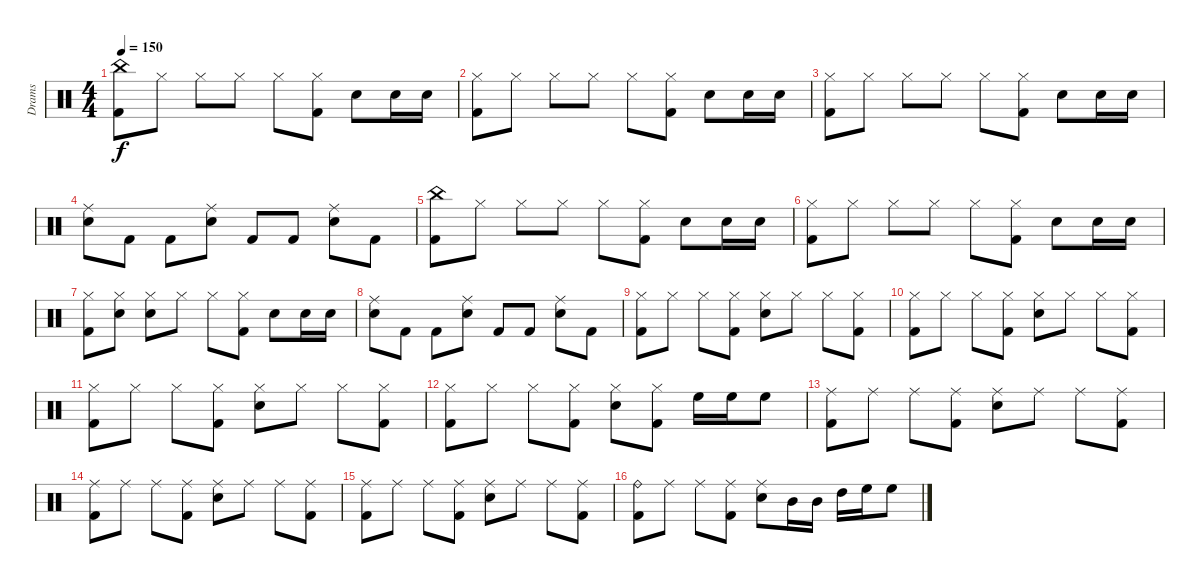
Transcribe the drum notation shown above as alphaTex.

\track ("Drams" "Drams") {instrument percussion}
\staff {score}
\articulation defaults
\ts (4 4)
\tempo 150
\clef neutral
\ks aminor
("China (hit)" "Kick (hit) 2").8{dy f} "Hi-Hat (closed)".8 "Hi-Hat (closed)".8 "Hi-Hat (closed)".8 "Hi-Hat (closed)".8 ("Hi-Hat (closed)" "Kick (hit) 2").8 "Electric Snare (hit)".8 "Electric Snare (hit)".16 "Electric Snare (hit)".16 |
("Hi-Hat (closed)" "Kick (hit) 2").8 "Hi-Hat (closed)".8 "Hi-Hat (closed)".8 "Hi-Hat (closed)".8 "Hi-Hat (closed)".8 ("Hi-Hat (closed)" "Kick (hit) 2").8 "Electric Snare (hit)".8 "Electric Snare (hit)".16 "Electric Snare (hit)".16 |
("Hi-Hat (closed)" "Kick (hit) 2").8 "Hi-Hat (closed)".8 "Hi-Hat (closed)".8 "Hi-Hat (closed)".8 "Hi-Hat (closed)".8 ("Hi-Hat (closed)" "Kick (hit) 2").8 "Electric Snare (hit)".8 "Electric Snare (hit)".16 "Electric Snare (hit)".16 |
("Ride (middle)" "Electric Snare (hit)").8 "Kick (hit) 2".8 "Kick (hit) 2".8 ("Electric Snare (hit)" "Ride (middle)").8 "Kick (hit) 2".8 "Kick (hit) 2".8 ("Electric Snare (hit)" "Ride (middle)").8 "Kick (hit) 2".8 |
("China (hit)" "Kick (hit) 2").8 "Hi-Hat (closed)".8 "Hi-Hat (closed)".8 "Hi-Hat (closed)".8 "Hi-Hat (closed)".8 ("Hi-Hat (closed)" "Kick (hit) 2").8 "Electric Snare (hit)".8 "Electric Snare (hit)".16 "Electric Snare (hit)".16 |
("Hi-Hat (closed)" "Kick (hit) 2").8 "Hi-Hat (closed)".8 "Hi-Hat (closed)".8 "Hi-Hat (closed)".8 "Hi-Hat (closed)".8 ("Hi-Hat (closed)" "Kick (hit) 2").8 "Electric Snare (hit)".8 "Electric Snare (hit)".16 "Electric Snare (hit)".16 |
("Hi-Hat (closed)" "Kick (hit) 2").8 ("Hi-Hat (closed)" "Electric Snare (hit)").8 ("Hi-Hat (closed)" "Electric Snare (hit)").8 "Hi-Hat (closed)".8 "Hi-Hat (closed)".8 ("Hi-Hat (closed)" "Kick (hit) 2").8 "Electric Snare (hit)".8 "Electric Snare (hit)".16 "Electric Snare (hit)".16 |
("Ride (middle)" "Electric Snare (hit)").8 "Kick (hit) 2".8 "Kick (hit) 2".8 ("Electric Snare (hit)" "Ride (middle)").8 "Kick (hit) 2".8 "Kick (hit) 2".8 ("Electric Snare (hit)" "Ride (middle)").8 "Kick (hit) 2".8 |
("Hi-Hat (closed)" "Kick (hit) 2").8 "Hi-Hat (closed)".8 "Hi-Hat (closed)".8 ("Hi-Hat (closed)" "Kick (hit) 2").8 ("Hi-Hat (closed)" "Electric Snare (hit)").8 "Hi-Hat (closed)".8 "Hi-Hat (closed)".8 ("Kick (hit) 2" "Hi-Hat (closed)").8 |
("Hi-Hat (closed)" "Kick (hit) 2").8 "Hi-Hat (closed)".8 "Hi-Hat (closed)".8 ("Hi-Hat (closed)" "Kick (hit) 2").8 ("Hi-Hat (closed)" "Electric Snare (hit)").8 "Hi-Hat (closed)".8 "Hi-Hat (closed)".8 ("Kick (hit) 2" "Hi-Hat (closed)").8 |
("Hi-Hat (closed)" "Kick (hit) 2").8 "Hi-Hat (closed)".8 "Hi-Hat (closed)".8 ("Hi-Hat (closed)" "Kick (hit) 2").8 ("Hi-Hat (closed)" "Electric Snare (hit)").8 "Hi-Hat (closed)".8 "Hi-Hat (closed)".8 ("Kick (hit) 2" "Hi-Hat (closed)").8 |
("Hi-Hat (closed)" "Kick (hit) 2").8 "Hi-Hat (closed)".8 "Hi-Hat (closed)".8 ("Hi-Hat (closed)" "Kick (hit) 2").8 ("Hi-Hat (closed)" "Electric Snare (hit)").8 ("Kick (hit) 2" "Hi-Hat (closed)").8 "High Floor Tom (hit)".16 "High Floor Tom (hit)".16 "High Floor Tom (hit)".8 |
("Ride (middle)" "Kick (hit) 2").8 "Ride (middle)".8 "Ride (middle)".8 ("Ride (middle)" "Kick (hit) 2").8 ("Ride (middle)" "Electric Snare (hit)").8 "Ride (middle)".8 "Ride (middle)".8 ("Ride (middle)" "Kick (hit) 2").8 |
("Ride (middle)" "Kick (hit) 2").8 "Ride (middle)".8 "Ride (middle)".8 ("Ride (middle)" "Kick (hit) 2").8 ("Ride (middle)" "Electric Snare (hit)").8 "Ride (middle)".8 "Ride (middle)".8 ("Ride (middle)" "Kick (hit) 2").8 |
("Ride (middle)" "Kick (hit) 2").8 "Ride (middle)".8 "Ride (middle)".8 ("Ride (middle)" "Kick (hit) 2").8 ("Ride (middle)" "Electric Snare (hit)").8 "Ride (middle)".8 "Ride (middle)".8 ("Ride (middle)" "Kick (hit) 2").8 |
("Ride (bell)" "Kick (hit) 2").8 "Ride (middle)".8 "Ride (middle)".8 ("Ride (middle)" "Kick (hit) 2").8 ("Ride (middle)" "Electric Snare (hit)").8 "Mid Tom (hit)".16 "Mid Tom (hit)".16 "High Tom (hit)".16 "High Floor Tom (hit)".16 "High Floor Tom (hit)".8
